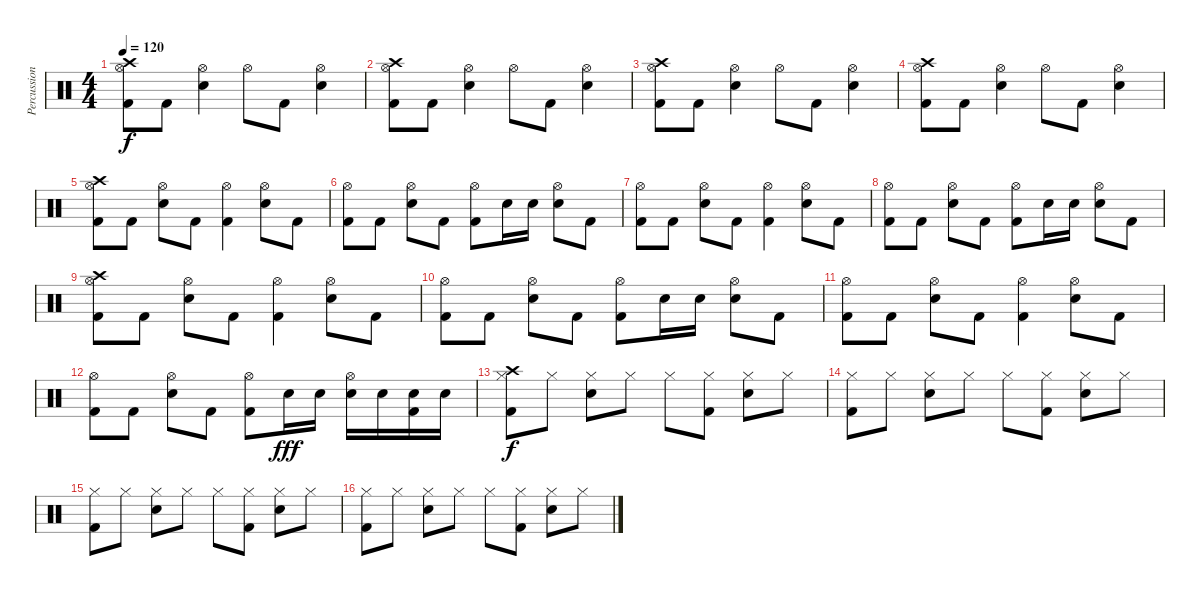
\track ("Percussion" "Percussion") {instrument percussion}
\staff {score}
\articulation defaults
\ts (4 4)
\tempo 120
\clef neutral
\ks c
("Crash high (hit)" "Kick (hit) 2" "Hi-Hat (open)").8{dy f} "Kick (hit) 2".8 ("Electric Snare (hit)" "Hi-Hat (open)").4 "Hi-Hat (open)".8 "Kick (hit) 2".8 ("Electric Snare (hit)" "Hi-Hat (open)").4 |
("Crash high (hit)" "Kick (hit) 2" "Hi-Hat (open)").8 "Kick (hit) 2".8 ("Electric Snare (hit)" "Hi-Hat (open)").4 "Hi-Hat (open)".8 "Kick (hit) 2".8 ("Electric Snare (hit)" "Hi-Hat (open)").4 |
("Crash high (hit)" "Kick (hit) 2" "Hi-Hat (open)").8 "Kick (hit) 2".8 ("Electric Snare (hit)" "Hi-Hat (open)").4 "Hi-Hat (open)".8 "Kick (hit) 2".8 ("Electric Snare (hit)" "Hi-Hat (open)").4 |
("Crash high (hit)" "Kick (hit) 2" "Hi-Hat (open)").8 "Kick (hit) 2".8 ("Electric Snare (hit)" "Hi-Hat (open)").4 "Hi-Hat (open)".8 "Kick (hit) 2".8 ("Electric Snare (hit)" "Hi-Hat (open)").4 |
("Kick (hit) 2" "Crash high (hit)" "Hi-Hat (open)").8 "Kick (hit) 2".8 ("Electric Snare (hit)" "Hi-Hat (open)").8 "Kick (hit) 2".8 ("Kick (hit) 2" "Hi-Hat (open)").4 ("Electric Snare (hit)" "Hi-Hat (open)").8 "Kick (hit) 2".8 |
("Kick (hit) 2" "Hi-Hat (open)").8 "Kick (hit) 2".8 ("Electric Snare (hit)" "Hi-Hat (open)").8 "Kick (hit) 2".8 ("Kick (hit) 2" "Hi-Hat (open)").8 "Electric Snare (hit)".16 "Electric Snare (hit)".16 ("Electric Snare (hit)" "Hi-Hat (open)").8 "Kick (hit) 2".8 |
("Kick (hit) 2" "Hi-Hat (open)").8 "Kick (hit) 2".8 ("Electric Snare (hit)" "Hi-Hat (open)").8 "Kick (hit) 2".8 ("Kick (hit) 2" "Hi-Hat (open)").4 ("Electric Snare (hit)" "Hi-Hat (open)").8 "Kick (hit) 2".8 |
("Kick (hit) 2" "Hi-Hat (open)").8 "Kick (hit) 2".8 ("Electric Snare (hit)" "Hi-Hat (open)").8 "Kick (hit) 2".8 ("Kick (hit) 2" "Hi-Hat (open)").8 "Electric Snare (hit)".16 "Electric Snare (hit)".16 ("Electric Snare (hit)" "Hi-Hat (open)").8 "Kick (hit) 2".8 |
("Kick (hit) 2" "Crash high (hit)" "Hi-Hat (open)").8 "Kick (hit) 2".8 ("Electric Snare (hit)" "Hi-Hat (open)").8 "Kick (hit) 2".8 ("Kick (hit) 2" "Hi-Hat (open)").4 ("Electric Snare (hit)" "Hi-Hat (open)").8 "Kick (hit) 2".8 |
("Kick (hit) 2" "Hi-Hat (open)").8 "Kick (hit) 2".8 ("Electric Snare (hit)" "Hi-Hat (open)").8 "Kick (hit) 2".8 ("Kick (hit) 2" "Hi-Hat (open)").8 "Electric Snare (hit)".16 "Electric Snare (hit)".16 ("Electric Snare (hit)" "Hi-Hat (open)").8 "Kick (hit) 2".8 |
("Kick (hit) 2" "Hi-Hat (open)").8 "Kick (hit) 2".8 ("Electric Snare (hit)" "Hi-Hat (open)").8 "Kick (hit) 2".8 ("Kick (hit) 2" "Hi-Hat (open)").4 ("Electric Snare (hit)" "Hi-Hat (open)").8 "Kick (hit) 2".8 |
("Kick (hit) 2" "Hi-Hat (open)").8 "Kick (hit) 2".8 ("Electric Snare (hit)" "Hi-Hat (open)").8 "Kick (hit) 2".8 ("Kick (hit) 2" "Hi-Hat (open)").8 "Electric Snare (hit)".16{dy fff} "Electric Snare (hit)".16 ("Electric Snare (hit)" "Hi-Hat (open)").16 "Electric Snare (hit)".16 ("Kick (hit) 2" "Electric Snare (hit)").16 "Electric Snare (hit)".16 |
("Hi-Hat (closed)" "Crash high (hit)" "Kick (hit) 2").8{dy f} "Hi-Hat (closed)".8 ("Hi-Hat (closed)" "Electric Snare (hit)").8 "Hi-Hat (closed)".8 "Hi-Hat (closed)".8 ("Hi-Hat (closed)" "Kick (hit) 2").8 ("Hi-Hat (closed)" "Electric Snare (hit)").8 "Hi-Hat (closed)".8 |
("Hi-Hat (closed)" "Kick (hit) 2").8 "Hi-Hat (closed)".8 ("Hi-Hat (closed)" "Electric Snare (hit)").8 "Hi-Hat (closed)".8 "Hi-Hat (closed)".8 ("Hi-Hat (closed)" "Kick (hit) 2").8 ("Hi-Hat (closed)" "Electric Snare (hit)").8 "Hi-Hat (closed)".8 |
("Hi-Hat (closed)" "Kick (hit) 2").8 "Hi-Hat (closed)".8 ("Hi-Hat (closed)" "Electric Snare (hit)").8 "Hi-Hat (closed)".8 "Hi-Hat (closed)".8 ("Hi-Hat (closed)" "Kick (hit) 2").8 ("Hi-Hat (closed)" "Electric Snare (hit)").8 "Hi-Hat (closed)".8 |
("Hi-Hat (closed)" "Kick (hit) 2").8 "Hi-Hat (closed)".8 ("Hi-Hat (closed)" "Electric Snare (hit)").8 "Hi-Hat (closed)".8 "Hi-Hat (closed)".8 ("Hi-Hat (closed)" "Kick (hit) 2").8 ("Hi-Hat (closed)" "Electric Snare (hit)").8 "Hi-Hat (closed)".8
